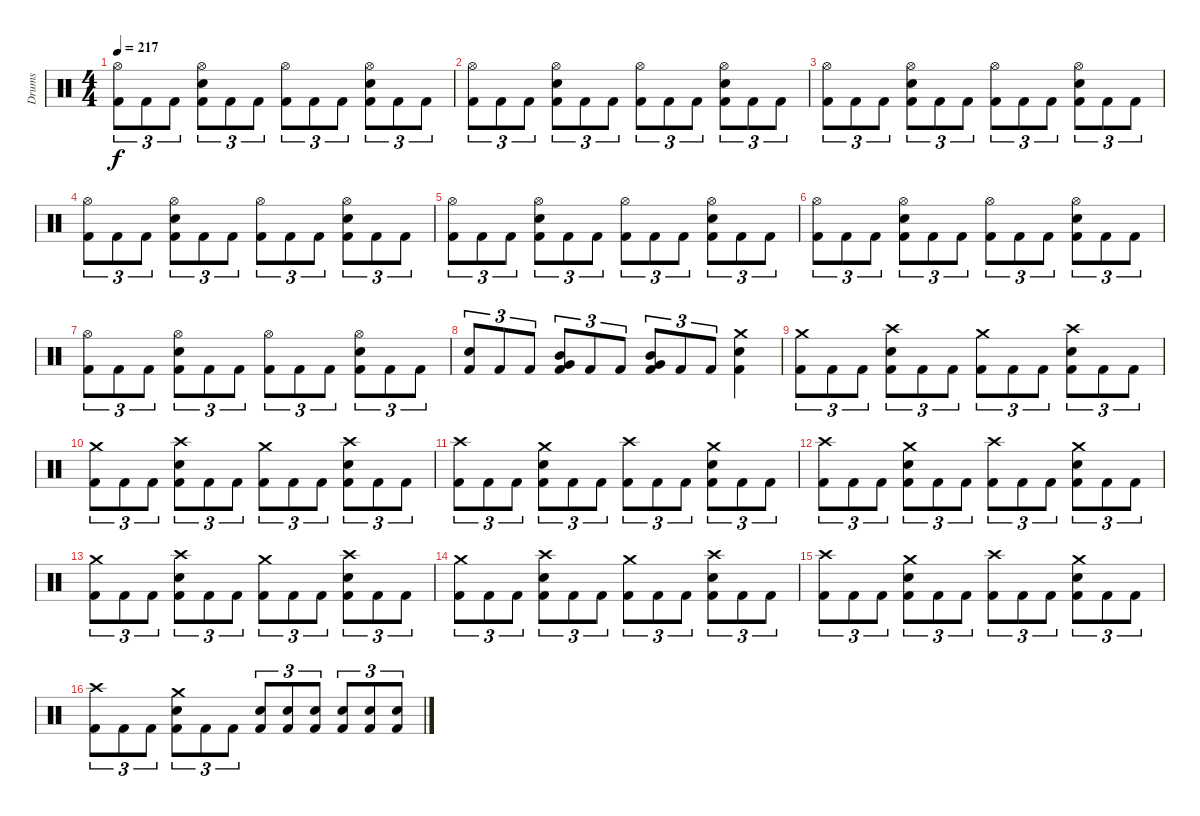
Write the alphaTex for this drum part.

\track ("Drums" "Drums") {instrument percussion}
\staff {score}
\articulation defaults
\ts (4 4)
\tempo 217
\clef neutral
\ks c
("Hi-Hat (open)" "Kick (hit) 2").8{tu (3 2) dy f} "Kick (hit) 2".8{tu (3 2)} "Kick (hit) 2".8{tu (3 2)} ("Hi-Hat (open)" "Electric Snare (hit)" "Kick (hit) 2").8{tu (3 2)} "Kick (hit) 2".8{tu (3 2)} "Kick (hit) 2".8{tu (3 2)} ("Hi-Hat (open)" "Kick (hit) 2").8{tu (3 2)} "Kick (hit) 2".8{tu (3 2)} "Kick (hit) 2".8{tu (3 2)} ("Hi-Hat (open)" "Electric Snare (hit)" "Kick (hit) 2").8{tu (3 2)} "Kick (hit) 2".8{tu (3 2)} "Kick (hit) 2".8{tu (3 2)} |
("Hi-Hat (open)" "Kick (hit) 2").8{tu (3 2)} "Kick (hit) 2".8{tu (3 2)} "Kick (hit) 2".8{tu (3 2)} ("Hi-Hat (open)" "Electric Snare (hit)" "Kick (hit) 2").8{tu (3 2)} "Kick (hit) 2".8{tu (3 2)} "Kick (hit) 2".8{tu (3 2)} ("Hi-Hat (open)" "Kick (hit) 2").8{tu (3 2)} "Kick (hit) 2".8{tu (3 2)} "Kick (hit) 2".8{tu (3 2)} ("Hi-Hat (open)" "Electric Snare (hit)" "Kick (hit) 2").8{tu (3 2)} "Kick (hit) 2".8{tu (3 2)} "Kick (hit) 2".8{tu (3 2)} |
("Hi-Hat (open)" "Kick (hit) 2").8{tu (3 2)} "Kick (hit) 2".8{tu (3 2)} "Kick (hit) 2".8{tu (3 2)} ("Hi-Hat (open)" "Electric Snare (hit)" "Kick (hit) 2").8{tu (3 2)} "Kick (hit) 2".8{tu (3 2)} "Kick (hit) 2".8{tu (3 2)} ("Hi-Hat (open)" "Kick (hit) 2").8{tu (3 2)} "Kick (hit) 2".8{tu (3 2)} "Kick (hit) 2".8{tu (3 2)} ("Hi-Hat (open)" "Electric Snare (hit)" "Kick (hit) 2").8{tu (3 2)} "Kick (hit) 2".8{tu (3 2)} "Kick (hit) 2".8{tu (3 2)} |
("Hi-Hat (open)" "Kick (hit) 2").8{tu (3 2)} "Kick (hit) 2".8{tu (3 2)} "Kick (hit) 2".8{tu (3 2)} ("Hi-Hat (open)" "Electric Snare (hit)" "Kick (hit) 2").8{tu (3 2)} "Kick (hit) 2".8{tu (3 2)} "Kick (hit) 2".8{tu (3 2)} ("Hi-Hat (open)" "Kick (hit) 2").8{tu (3 2)} "Kick (hit) 2".8{tu (3 2)} "Kick (hit) 2".8{tu (3 2)} ("Hi-Hat (open)" "Electric Snare (hit)" "Kick (hit) 2").8{tu (3 2)} "Kick (hit) 2".8{tu (3 2)} "Kick (hit) 2".8{tu (3 2)} |
("Hi-Hat (open)" "Kick (hit) 2").8{tu (3 2)} "Kick (hit) 2".8{tu (3 2)} "Kick (hit) 2".8{tu (3 2)} ("Hi-Hat (open)" "Electric Snare (hit)" "Kick (hit) 2").8{tu (3 2)} "Kick (hit) 2".8{tu (3 2)} "Kick (hit) 2".8{tu (3 2)} ("Hi-Hat (open)" "Kick (hit) 2").8{tu (3 2)} "Kick (hit) 2".8{tu (3 2)} "Kick (hit) 2".8{tu (3 2)} ("Hi-Hat (open)" "Electric Snare (hit)" "Kick (hit) 2").8{tu (3 2)} "Kick (hit) 2".8{tu (3 2)} "Kick (hit) 2".8{tu (3 2)} |
("Hi-Hat (open)" "Kick (hit) 2").8{tu (3 2)} "Kick (hit) 2".8{tu (3 2)} "Kick (hit) 2".8{tu (3 2)} ("Hi-Hat (open)" "Electric Snare (hit)" "Kick (hit) 2").8{tu (3 2)} "Kick (hit) 2".8{tu (3 2)} "Kick (hit) 2".8{tu (3 2)} ("Hi-Hat (open)" "Kick (hit) 2").8{tu (3 2)} "Kick (hit) 2".8{tu (3 2)} "Kick (hit) 2".8{tu (3 2)} ("Hi-Hat (open)" "Electric Snare (hit)" "Kick (hit) 2").8{tu (3 2)} "Kick (hit) 2".8{tu (3 2)} "Kick (hit) 2".8{tu (3 2)} |
("Hi-Hat (open)" "Kick (hit) 2").8{tu (3 2)} "Kick (hit) 2".8{tu (3 2)} "Kick (hit) 2".8{tu (3 2)} ("Hi-Hat (open)" "Electric Snare (hit)" "Kick (hit) 2").8{tu (3 2)} "Kick (hit) 2".8{tu (3 2)} "Kick (hit) 2".8{tu (3 2)} ("Hi-Hat (open)" "Kick (hit) 2").8{tu (3 2)} "Kick (hit) 2".8{tu (3 2)} "Kick (hit) 2".8{tu (3 2)} ("Hi-Hat (open)" "Electric Snare (hit)" "Kick (hit) 2").8{tu (3 2)} "Kick (hit) 2".8{tu (3 2)} "Kick (hit) 2".8{tu (3 2)} |
("Electric Snare (hit)" "Kick (hit) 2").8{tu (3 2)} "Kick (hit) 2".8{tu (3 2)} "Kick (hit) 2".8{tu (3 2)} ("Mid Tom (hit)" "Very Low Tom (hit)" "Kick (hit) 2").8{tu (3 2)} "Kick (hit) 2".8{tu (3 2)} "Kick (hit) 2".8{tu (3 2)} ("Mid Tom (hit)" "Very Low Tom (hit)" "Kick (hit) 2").8{tu (3 2)} "Kick (hit) 2".8{tu (3 2)} "Kick (hit) 2".8{tu (3 2)} ("Crash medium (hit)" "Electric Snare (hit)" "Kick (hit) 2").4 |
("Crash medium (hit)" "Kick (hit) 2").8{tu (3 2)} "Kick (hit) 2".8{tu (3 2)} "Kick (hit) 2".8{tu (3 2)} ("Crash high (hit)" "Electric Snare (hit)" "Kick (hit) 2").8{tu (3 2)} "Kick (hit) 2".8{tu (3 2)} "Kick (hit) 2".8{tu (3 2)} ("Crash medium (hit)" "Kick (hit) 2").8{tu (3 2)} "Kick (hit) 2".8{tu (3 2)} "Kick (hit) 2".8{tu (3 2)} ("Crash high (hit)" "Electric Snare (hit)" "Kick (hit) 2").8{tu (3 2)} "Kick (hit) 2".8{tu (3 2)} "Kick (hit) 2".8{tu (3 2)} |
("Crash medium (hit)" "Kick (hit) 2").8{tu (3 2)} "Kick (hit) 2".8{tu (3 2)} "Kick (hit) 2".8{tu (3 2)} ("Crash high (hit)" "Electric Snare (hit)" "Kick (hit) 2").8{tu (3 2)} "Kick (hit) 2".8{tu (3 2)} "Kick (hit) 2".8{tu (3 2)} ("Crash medium (hit)" "Kick (hit) 2").8{tu (3 2)} "Kick (hit) 2".8{tu (3 2)} "Kick (hit) 2".8{tu (3 2)} ("Crash high (hit)" "Electric Snare (hit)" "Kick (hit) 2").8{tu (3 2)} "Kick (hit) 2".8{tu (3 2)} "Kick (hit) 2".8{tu (3 2)} |
("Crash high (hit)" "Kick (hit) 2").8{tu (3 2)} "Kick (hit) 2".8{tu (3 2)} "Kick (hit) 2".8{tu (3 2)} ("Crash medium (hit)" "Electric Snare (hit)" "Kick (hit) 2").8{tu (3 2)} "Kick (hit) 2".8{tu (3 2)} "Kick (hit) 2".8{tu (3 2)} ("Crash high (hit)" "Kick (hit) 2").8{tu (3 2)} "Kick (hit) 2".8{tu (3 2)} "Kick (hit) 2".8{tu (3 2)} ("Crash medium (hit)" "Electric Snare (hit)" "Kick (hit) 2").8{tu (3 2)} "Kick (hit) 2".8{tu (3 2)} "Kick (hit) 2".8{tu (3 2)} |
("Crash high (hit)" "Kick (hit) 2").8{tu (3 2)} "Kick (hit) 2".8{tu (3 2)} "Kick (hit) 2".8{tu (3 2)} ("Crash medium (hit)" "Electric Snare (hit)" "Kick (hit) 2").8{tu (3 2)} "Kick (hit) 2".8{tu (3 2)} "Kick (hit) 2".8{tu (3 2)} ("Crash high (hit)" "Kick (hit) 2").8{tu (3 2)} "Kick (hit) 2".8{tu (3 2)} "Kick (hit) 2".8{tu (3 2)} ("Crash medium (hit)" "Electric Snare (hit)" "Kick (hit) 2").8{tu (3 2)} "Kick (hit) 2".8{tu (3 2)} "Kick (hit) 2".8{tu (3 2)} |
("Crash medium (hit)" "Kick (hit) 2").8{tu (3 2)} "Kick (hit) 2".8{tu (3 2)} "Kick (hit) 2".8{tu (3 2)} ("Crash high (hit)" "Electric Snare (hit)" "Kick (hit) 2").8{tu (3 2)} "Kick (hit) 2".8{tu (3 2)} "Kick (hit) 2".8{tu (3 2)} ("Crash medium (hit)" "Kick (hit) 2").8{tu (3 2)} "Kick (hit) 2".8{tu (3 2)} "Kick (hit) 2".8{tu (3 2)} ("Crash high (hit)" "Electric Snare (hit)" "Kick (hit) 2").8{tu (3 2)} "Kick (hit) 2".8{tu (3 2)} "Kick (hit) 2".8{tu (3 2)} |
("Crash medium (hit)" "Kick (hit) 2").8{tu (3 2)} "Kick (hit) 2".8{tu (3 2)} "Kick (hit) 2".8{tu (3 2)} ("Crash high (hit)" "Electric Snare (hit)" "Kick (hit) 2").8{tu (3 2)} "Kick (hit) 2".8{tu (3 2)} "Kick (hit) 2".8{tu (3 2)} ("Crash medium (hit)" "Kick (hit) 2").8{tu (3 2)} "Kick (hit) 2".8{tu (3 2)} "Kick (hit) 2".8{tu (3 2)} ("Crash high (hit)" "Electric Snare (hit)" "Kick (hit) 2").8{tu (3 2)} "Kick (hit) 2".8{tu (3 2)} "Kick (hit) 2".8{tu (3 2)} |
("Crash high (hit)" "Kick (hit) 2").8{tu (3 2)} "Kick (hit) 2".8{tu (3 2)} "Kick (hit) 2".8{tu (3 2)} ("Crash medium (hit)" "Electric Snare (hit)" "Kick (hit) 2").8{tu (3 2)} "Kick (hit) 2".8{tu (3 2)} "Kick (hit) 2".8{tu (3 2)} ("Crash high (hit)" "Kick (hit) 2").8{tu (3 2)} "Kick (hit) 2".8{tu (3 2)} "Kick (hit) 2".8{tu (3 2)} ("Crash medium (hit)" "Electric Snare (hit)" "Kick (hit) 2").8{tu (3 2)} "Kick (hit) 2".8{tu (3 2)} "Kick (hit) 2".8{tu (3 2)} |
("Crash high (hit)" "Kick (hit) 2").8{tu (3 2)} "Kick (hit) 2".8{tu (3 2)} "Kick (hit) 2".8{tu (3 2)} ("Crash medium (hit)" "Electric Snare (hit)" "Kick (hit) 2").8{tu (3 2)} "Kick (hit) 2".8{tu (3 2)} "Kick (hit) 2".8{tu (3 2)} ("Electric Snare (hit)" "Kick (hit) 2").8{tu (3 2)} ("Electric Snare (hit)" "Kick (hit) 2").8{tu (3 2)} ("Electric Snare (hit)" "Kick (hit) 2").8{tu (3 2)} ("Electric Snare (hit)" "Kick (hit) 2").8{tu (3 2)} ("Electric Snare (hit)" "Kick (hit) 2").8{tu (3 2)} ("Electric Snare (hit)" "Kick (hit) 2").8{tu (3 2)}
